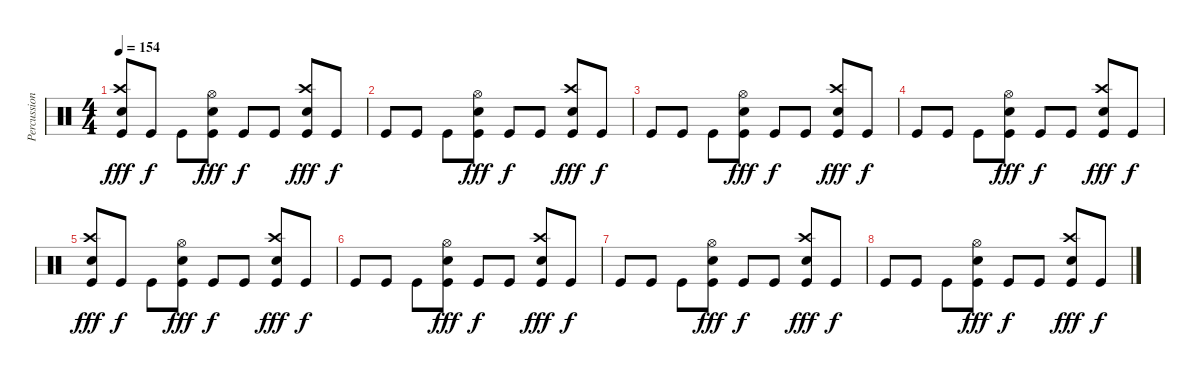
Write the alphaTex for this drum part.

\track ("Percussion" "Percussion") {instrument percussion}
\staff {score}
\articulation defaults
\ts (4 4)
\tempo 154
\clef neutral
\ks c
("Kick (hit)" "Crash high (hit)" "Electric Snare (hit)").8{dy fff} "Kick (hit)".8{dy f} "Kick (hit)".8 ("Kick (hit)" "Electric Snare (hit)" "Hi-Hat (open)").8{dy fff} "Kick (hit)".8{dy f} "Kick (hit)".8 ("Electric Snare (hit)" "Kick (hit)" "Crash high (hit)").8{dy fff} "Kick (hit)".8{dy f} |
"Kick (hit)".8 "Kick (hit)".8 "Kick (hit)".8 ("Kick (hit)" "Electric Snare (hit)" "Hi-Hat (open)").8{dy fff} "Kick (hit)".8{dy f} "Kick (hit)".8 ("Kick (hit)" "Electric Snare (hit)" "Crash high (hit)").8{dy fff} "Kick (hit)".8{dy f} |
"Kick (hit)".8 "Kick (hit)".8 "Kick (hit)".8 ("Kick (hit)" "Electric Snare (hit)" "Hi-Hat (open)").8{dy fff} "Kick (hit)".8{dy f} "Kick (hit)".8 ("Kick (hit)" "Electric Snare (hit)" "Crash high (hit)").8{dy fff} "Kick (hit)".8{dy f} |
"Kick (hit)".8 "Kick (hit)".8 "Kick (hit)".8 ("Kick (hit)" "Electric Snare (hit)" "Hi-Hat (open)").8{dy fff} "Kick (hit)".8{dy f} "Kick (hit)".8 ("Kick (hit)" "Electric Snare (hit)" "Crash high (hit)").8{dy fff} "Kick (hit)".8{dy f} |
("Kick (hit)" "Crash high (hit)" "Electric Snare (hit)").8{dy fff} "Kick (hit)".8{dy f} "Kick (hit)".8 ("Kick (hit)" "Electric Snare (hit)" "Hi-Hat (open)").8{dy fff} "Kick (hit)".8{dy f} "Kick (hit)".8 ("Electric Snare (hit)" "Kick (hit)" "Crash high (hit)").8{dy fff} "Kick (hit)".8{dy f} |
"Kick (hit)".8 "Kick (hit)".8 "Kick (hit)".8 ("Kick (hit)" "Electric Snare (hit)" "Hi-Hat (open)").8{dy fff} "Kick (hit)".8{dy f} "Kick (hit)".8 ("Kick (hit)" "Electric Snare (hit)" "Crash high (hit)").8{dy fff} "Kick (hit)".8{dy f} |
"Kick (hit)".8 "Kick (hit)".8 "Kick (hit)".8 ("Kick (hit)" "Electric Snare (hit)" "Hi-Hat (open)").8{dy fff} "Kick (hit)".8{dy f} "Kick (hit)".8 ("Kick (hit)" "Electric Snare (hit)" "Crash high (hit)").8{dy fff} "Kick (hit)".8{dy f} |
"Kick (hit)".8 "Kick (hit)".8 "Kick (hit)".8 ("Kick (hit)" "Electric Snare (hit)" "Hi-Hat (open)").8{dy fff} "Kick (hit)".8{dy f} "Kick (hit)".8 ("Kick (hit)" "Electric Snare (hit)" "Crash high (hit)").8{dy fff} "Kick (hit)".8{dy f}
